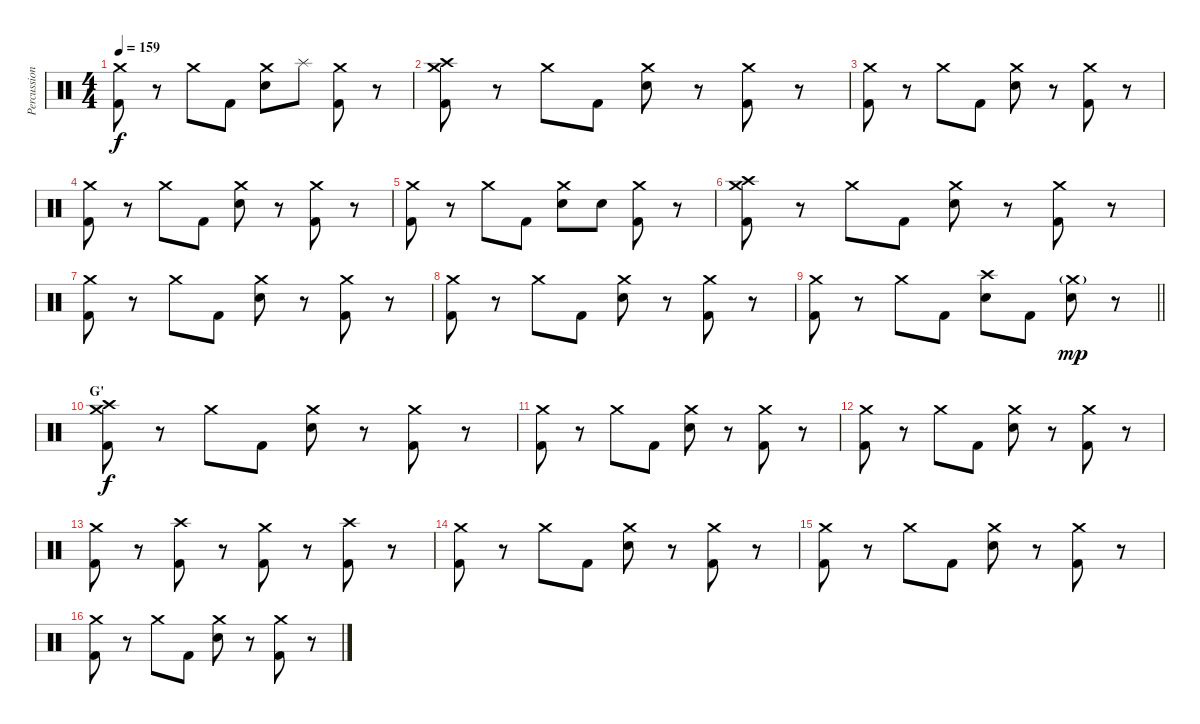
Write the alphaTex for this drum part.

\track ("Percussion" "Percussion") {instrument percussion}
\staff {score}
\articulation defaults
\ts (4 4)
\tempo 159
\clef neutral
\ks c
("Crash medium (hit)" "Kick (hit) 2").8{dy f} r.8 "Crash medium (hit)".8 "Kick (hit) 2".8 ("Crash medium (hit)" "Snare (hit) 2").8 "Splash (hit)".8 ("Crash medium (hit)" "Kick (hit) 2").8 r.8 |
("Crash high (hit)" "Crash medium (hit)" "Kick (hit) 2").8 r.8 "Crash medium (hit)".8 "Kick (hit) 2".8 ("Crash medium (hit)" "Snare (hit) 2").8 r.8 ("Crash medium (hit)" "Kick (hit) 2").8 r.8 |
("Crash medium (hit)" "Kick (hit) 2").8 r.8 "Crash medium (hit)".8 "Kick (hit) 2".8 ("Crash medium (hit)" "Snare (hit) 2").8 r.8 ("Crash medium (hit)" "Kick (hit) 2").8 r.8 |
("Crash medium (hit)" "Kick (hit) 2").8 r.8 "Crash medium (hit)".8 "Kick (hit) 2".8 ("Crash medium (hit)" "Snare (hit) 2").8 r.8 ("Crash medium (hit)" "Kick (hit) 2").8 r.8 |
("Crash medium (hit)" "Kick (hit) 2").8 r.8 "Crash medium (hit)".8 "Kick (hit) 2".8 ("Crash medium (hit)" "Snare (hit) 2").8 "Snare (hit) 2".8 ("Crash medium (hit)" "Kick (hit) 2").8 r.8 |
("Crash medium (hit)" "Crash high (hit)" "Kick (hit) 2").8 r.8 "Crash medium (hit)".8 "Kick (hit) 2".8 ("Crash medium (hit)" "Snare (hit) 2").8 r.8 ("Crash medium (hit)" "Kick (hit) 2").8 r.8 |
("Crash medium (hit)" "Kick (hit) 2").8 r.8 "Crash medium (hit)".8 "Kick (hit) 2".8 ("Crash medium (hit)" "Snare (hit) 2").8 r.8 ("Crash medium (hit)" "Kick (hit) 2").8 r.8 |
("Crash medium (hit)" "Kick (hit) 2").8 r.8 "Crash medium (hit)".8 "Kick (hit) 2".8 ("Crash medium (hit)" "Snare (hit) 2").8 r.8 ("Crash medium (hit)" "Kick (hit) 2").8 r.8 |
\barLineRight lightlight
("Crash medium (hit)" "Kick (hit) 2").8 r.8 "Crash medium (hit)".8 "Kick (hit) 2".8 ("Crash high (hit)" "Snare (hit) 2").8 "Kick (hit) 2".8 ("Crash medium (hit)"{g} "Snare (hit) 2").8{dy mp} r.8 |
\section ("" "G'")
("Crash high (hit)" "Crash medium (hit)" "Kick (hit) 2").8{dy f} r.8 "Crash medium (hit)".8 "Kick (hit) 2".8 ("Crash medium (hit)" "Snare (hit) 2").8 r.8 ("Crash medium (hit)" "Kick (hit) 2").8 r.8 |
("Crash medium (hit)" "Kick (hit) 2").8 r.8 "Crash medium (hit)".8 "Kick (hit) 2".8 ("Crash medium (hit)" "Snare (hit) 2").8 r.8 ("Crash medium (hit)" "Kick (hit) 2").8 r.8 |
("Crash medium (hit)" "Kick (hit) 2").8 r.8 "Crash medium (hit)".8 "Kick (hit) 2".8 ("Crash medium (hit)" "Snare (hit) 2").8 r.8 ("Crash medium (hit)" "Kick (hit) 2").8 r.8 |
("Crash medium (hit)" "Kick (hit) 2").8 r.8 ("Crash high (hit)" "Kick (hit) 2").8 r.8 ("Crash medium (hit)" "Kick (hit) 2").8 r.8 ("Crash high (hit)" "Kick (hit) 2").8 r.8 |
("Crash medium (hit)" "Kick (hit) 2").8 r.8 "Crash medium (hit)".8 "Kick (hit) 2".8 ("Crash medium (hit)" "Snare (hit) 2").8 r.8 ("Crash medium (hit)" "Kick (hit) 2").8 r.8 |
("Crash medium (hit)" "Kick (hit) 2").8 r.8 "Crash medium (hit)".8 "Kick (hit) 2".8 ("Crash medium (hit)" "Snare (hit) 2").8 r.8 ("Crash medium (hit)" "Kick (hit) 2").8 r.8 |
("Crash medium (hit)" "Kick (hit) 2").8 r.8 "Crash medium (hit)".8 "Kick (hit) 2".8 ("Crash medium (hit)" "Snare (hit) 2").8 r.8 ("Crash medium (hit)" "Kick (hit) 2").8 r.8
